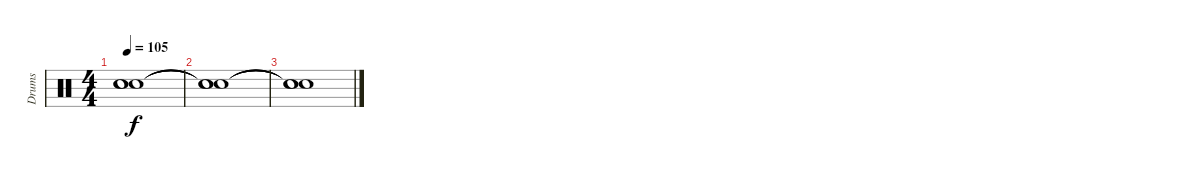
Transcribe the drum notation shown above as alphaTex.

\track ("Drums" "Drums") {instrument percussion}
\staff {score}
\articulation defaults
\ts (4 4)
\tempo 105
\clef neutral
\ks c
("Snare (hit)"{t} "Snare (hit)"{t} "Snare (hit)"{t}).1{dy f} |
("Snare (hit)"{t} "Snare (hit)"{t} "Snare (hit)"{t}).1 |
("Snare (hit)"{t} "Snare (hit)"{t} "Snare (hit)"{t}).1
